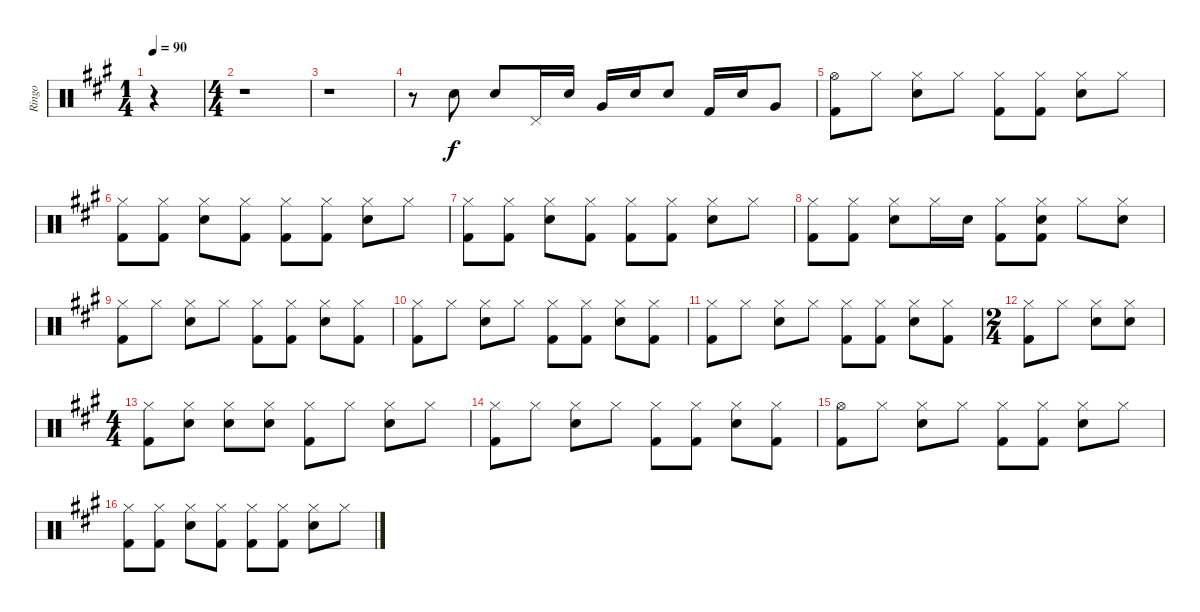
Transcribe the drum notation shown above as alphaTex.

\track ("Ringo" "Ringo") {instrument percussion}
\staff {score}
\articulation defaults
\ts (1 4)
\tempo 90
\clef neutral
\ks a
r.4{dy f} |
\ts (4 4)
r.1 |
r.1 |
r.8 "Snare (hit) 2".8 "Snare (hit) 2".8 "Pedal Hi-Hat (hit)".16 "Snare (hit) 2".16 "Very Low Tom (hit)".16 "Snare (hit) 2".16 "Snare (hit) 2".8 "Kick (hit) 2".16 "Snare (hit) 2".16 "Very Low Tom (hit)".8 |
("Hi-Hat (open)" "Kick (hit) 2").8 "Hi-Hat (closed)".8 ("Hi-Hat (closed)" "Snare (hit) 2").8 "Hi-Hat (closed)".8 ("Hi-Hat (closed)" "Kick (hit) 2").8 ("Hi-Hat (closed)" "Kick (hit) 2").8 ("Hi-Hat (closed)" "Snare (hit) 2").8 "Hi-Hat (closed)".8 |
("Hi-Hat (closed)" "Kick (hit) 2").8 ("Hi-Hat (closed)" "Kick (hit) 2").8 ("Hi-Hat (closed)" "Snare (hit) 2").8 ("Hi-Hat (closed)" "Kick (hit) 2").8 ("Hi-Hat (closed)" "Kick (hit) 2").8 ("Hi-Hat (closed)" "Kick (hit) 2").8 ("Hi-Hat (closed)" "Snare (hit) 2").8 "Hi-Hat (closed)".8 |
("Hi-Hat (closed)" "Kick (hit) 2").8 ("Hi-Hat (closed)" "Kick (hit) 2").8 ("Hi-Hat (closed)" "Snare (hit) 2").8 ("Hi-Hat (closed)" "Kick (hit) 2").8 ("Hi-Hat (closed)" "Kick (hit) 2").8 ("Hi-Hat (closed)" "Kick (hit) 2").8 ("Hi-Hat (closed)" "Snare (hit) 2").8 "Hi-Hat (closed)".8 |
("Hi-Hat (closed)" "Kick (hit) 2").8 ("Hi-Hat (closed)" "Kick (hit) 2").8 ("Hi-Hat (closed)" "Snare (hit) 2").8 "Hi-Hat (closed)".16 "Snare (hit) 2".16 ("Hi-Hat (closed)" "Kick (hit) 2").8 ("Hi-Hat (closed)" "Snare (hit) 2" "Kick (hit) 2").8 "Hi-Hat (closed)".8 ("Hi-Hat (closed)" "Snare (hit) 2").8 |
("Hi-Hat (closed)" "Kick (hit) 2").8 "Hi-Hat (closed)".8 ("Hi-Hat (closed)" "Snare (hit) 2").8 "Hi-Hat (closed)".8 ("Hi-Hat (closed)" "Kick (hit) 2").8 ("Hi-Hat (closed)" "Kick (hit) 2").8 ("Hi-Hat (closed)" "Snare (hit) 2").8 ("Hi-Hat (closed)" "Kick (hit) 2").8 |
("Hi-Hat (closed)" "Kick (hit) 2").8 "Hi-Hat (closed)".8 ("Hi-Hat (closed)" "Snare (hit) 2").8 "Hi-Hat (closed)".8 ("Hi-Hat (closed)" "Kick (hit) 2").8 ("Hi-Hat (closed)" "Kick (hit) 2").8 ("Hi-Hat (closed)" "Snare (hit) 2").8 ("Hi-Hat (closed)" "Kick (hit) 2").8 |
("Hi-Hat (closed)" "Kick (hit) 2").8 "Hi-Hat (closed)".8 ("Hi-Hat (closed)" "Snare (hit) 2").8 "Hi-Hat (closed)".8 ("Hi-Hat (closed)" "Kick (hit) 2").8 ("Hi-Hat (closed)" "Kick (hit) 2").8 ("Hi-Hat (closed)" "Snare (hit) 2").8 ("Hi-Hat (closed)" "Kick (hit) 2").8 |
\ts (2 4)
("Hi-Hat (closed)" "Kick (hit) 2").8 "Hi-Hat (closed)".8 ("Hi-Hat (closed)" "Snare (hit) 2").8 ("Hi-Hat (closed)" "Snare (hit) 2").8 |
\ts (4 4)
("Hi-Hat (closed)" "Kick (hit) 2").8 ("Hi-Hat (closed)" "Snare (hit) 2").8 ("Hi-Hat (closed)" "Snare (hit) 2").8 ("Hi-Hat (closed)" "Snare (hit) 2").8 ("Hi-Hat (closed)" "Kick (hit) 2").8 "Hi-Hat (closed)".8 ("Hi-Hat (closed)" "Snare (hit) 2").8 "Hi-Hat (closed)".8 |
("Hi-Hat (closed)" "Kick (hit) 2").8 "Hi-Hat (closed)".8 ("Hi-Hat (closed)" "Snare (hit) 2").8 "Hi-Hat (closed)".8 ("Hi-Hat (closed)" "Kick (hit) 2").8 ("Hi-Hat (closed)" "Kick (hit) 2").8 ("Hi-Hat (closed)" "Snare (hit) 2").8 ("Hi-Hat (closed)" "Kick (hit) 2").8 |
("Hi-Hat (open)" "Kick (hit) 2").8 "Hi-Hat (closed)".8 ("Hi-Hat (closed)" "Snare (hit) 2").8 "Hi-Hat (closed)".8 ("Hi-Hat (closed)" "Kick (hit) 2").8 ("Hi-Hat (closed)" "Kick (hit) 2").8 ("Hi-Hat (closed)" "Snare (hit) 2").8 "Hi-Hat (closed)".8 |
("Hi-Hat (closed)" "Kick (hit) 2").8 ("Hi-Hat (closed)" "Kick (hit) 2").8 ("Hi-Hat (closed)" "Snare (hit) 2").8 ("Hi-Hat (closed)" "Kick (hit) 2").8 ("Hi-Hat (closed)" "Kick (hit) 2").8 ("Hi-Hat (closed)" "Kick (hit) 2").8 ("Hi-Hat (closed)" "Snare (hit) 2").8 "Hi-Hat (closed)".8
